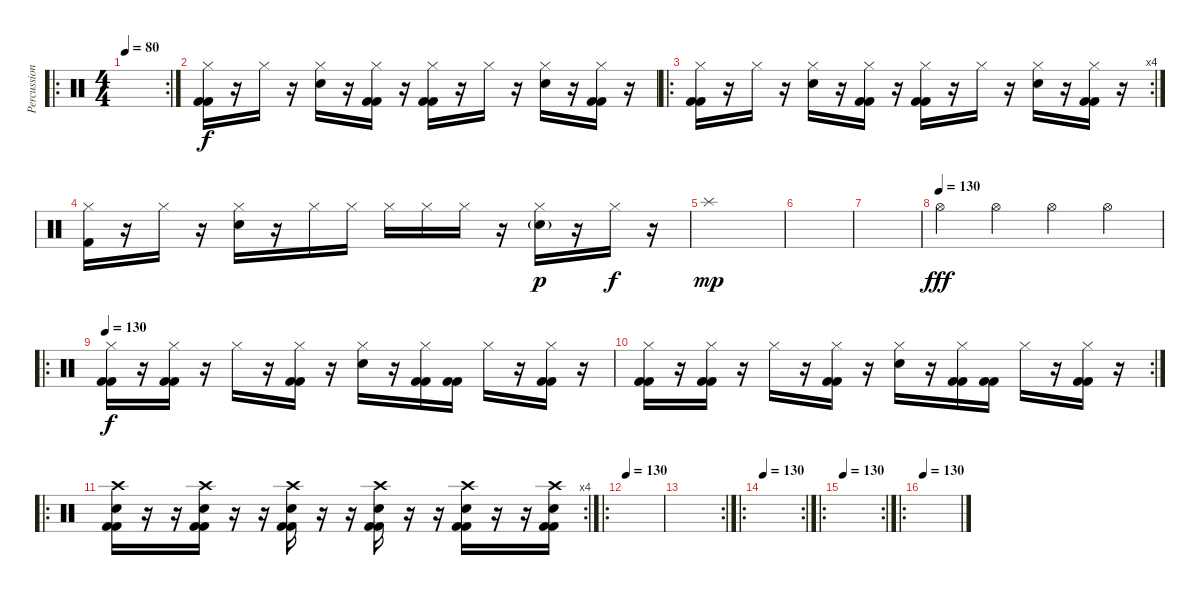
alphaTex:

\track ("Percussion" "Percussion") {instrument percussion}
\staff {score}
\articulation defaults
\ro
\rc 2
\ts (4 4)
\tempo 80
\clef neutral
\ks c
|
("Hi-Hat (closed)" "Kick (hit) 2" "Kick (hit) 2").16 r.16 "Hi-Hat (closed)".16 r.16 ("Hi-Hat (closed)" "Snare (hit) 2").16 r.16 ("Hi-Hat (closed)" "Kick (hit) 2" "Kick (hit) 2").16 r.16 ("Hi-Hat (closed)" "Kick (hit) 2" "Kick (hit) 2").16 r.16 "Hi-Hat (closed)".16 r.16 ("Hi-Hat (closed)" "Snare (hit) 2").16 r.16 ("Hi-Hat (closed)" "Kick (hit) 2" "Kick (hit) 2").16 r.16 |
\ro
\rc 4
("Hi-Hat (closed)" "Kick (hit) 2" "Kick (hit) 2").16 r.16 "Hi-Hat (closed)".16 r.16 ("Hi-Hat (closed)" "Snare (hit) 2").16 r.16 ("Hi-Hat (closed)" "Kick (hit) 2" "Kick (hit) 2").16 r.16 ("Hi-Hat (closed)" "Kick (hit) 2" "Kick (hit) 2").16 r.16 "Hi-Hat (closed)".16 r.16 ("Hi-Hat (closed)" "Snare (hit) 2").16 r.16 ("Hi-Hat (closed)" "Kick (hit) 2" "Kick (hit) 2").16 r.16 |
("Hi-Hat (closed)" "Kick (hit) 2").16 r.16 "Hi-Hat (closed)".16 r.16 ("Hi-Hat (closed)" "Snare (hit) 2").16 r.16 "Hi-Hat (closed)".16 "Hi-Hat (closed)".16 "Hi-Hat (closed)".16 "Hi-Hat (closed)".16 "Hi-Hat (closed)".16 r.16 ("Hi-Hat (closed)" "Snare (hit) 2"{g}).16{dy p} r.16 "Hi-Hat (closed)".16{dy f} r.16 |
"Splash (hit)".1{dy mp} |
|
|
\tempo (130)
"Hi-Hat (open)".4{dy fff} "Hi-Hat (open)".4 "Hi-Hat (open)".4 "Hi-Hat (open)".4 |
\ro
\tempo 130
("Hi-Hat (closed)" "Kick (hit) 2" "Kick (hit) 2").16{dy f} r.16 ("Hi-Hat (closed)" "Kick (hit) 2" "Kick (hit) 2").16 r.16 "Hi-Hat (closed)".16 r.16 ("Hi-Hat (closed)" "Kick (hit) 2" "Kick (hit) 2").16 r.16 ("Hi-Hat (closed)" "Snare (hit) 2").16 r.16 ("Hi-Hat (closed)" "Kick (hit) 2" "Kick (hit) 2").16 ("Kick (hit) 2" "Kick (hit) 2").16 "Hi-Hat (closed)".16 r.16 ("Hi-Hat (closed)" "Kick (hit) 2" "Kick (hit) 2").16 r.16 |
\rc 2
("Hi-Hat (closed)" "Kick (hit) 2" "Kick (hit) 2").16 r.16 ("Hi-Hat (closed)" "Kick (hit) 2" "Kick (hit) 2").16 r.16 "Hi-Hat (closed)".16 r.16 ("Hi-Hat (closed)" "Kick (hit) 2" "Kick (hit) 2").16 r.16 ("Hi-Hat (closed)" "Snare (hit) 2").16 r.16 ("Hi-Hat (closed)" "Kick (hit) 2" "Kick (hit) 2").16 ("Kick (hit) 2" "Kick (hit) 2").16 "Hi-Hat (closed)".16 r.16 ("Hi-Hat (closed)" "Kick (hit) 2" "Kick (hit) 2").16 r.16 |
\ro
\rc 4
("Crash high (hit)" "Snare (hit) 2" "Kick (hit) 2" "Kick (hit) 2").16 r.16 r.16 ("Crash high (hit)" "Snare (hit) 2" "Kick (hit) 2" "Kick (hit) 2").16 r.16 r.16 ("Crash high (hit)" "Snare (hit) 2" "Kick (hit) 2" "Kick (hit) 2").16 r.16 r.16 ("Crash high (hit)" "Snare (hit) 2" "Kick (hit) 2" "Kick (hit) 2").16 r.16 r.16 ("Crash high (hit)" "Snare (hit) 2" "Kick (hit) 2" "Kick (hit) 2").16 r.16 r.16 ("Crash high (hit)" "Snare (hit) 2" "Kick (hit) 2" "Kick (hit) 2").16 |
\ro
\tempo 130
|
\rc 2
|
\ro
\rc 2
\tempo 130
|
\ro
\rc 2
\tempo 130
|
\ro
\tempo 130
